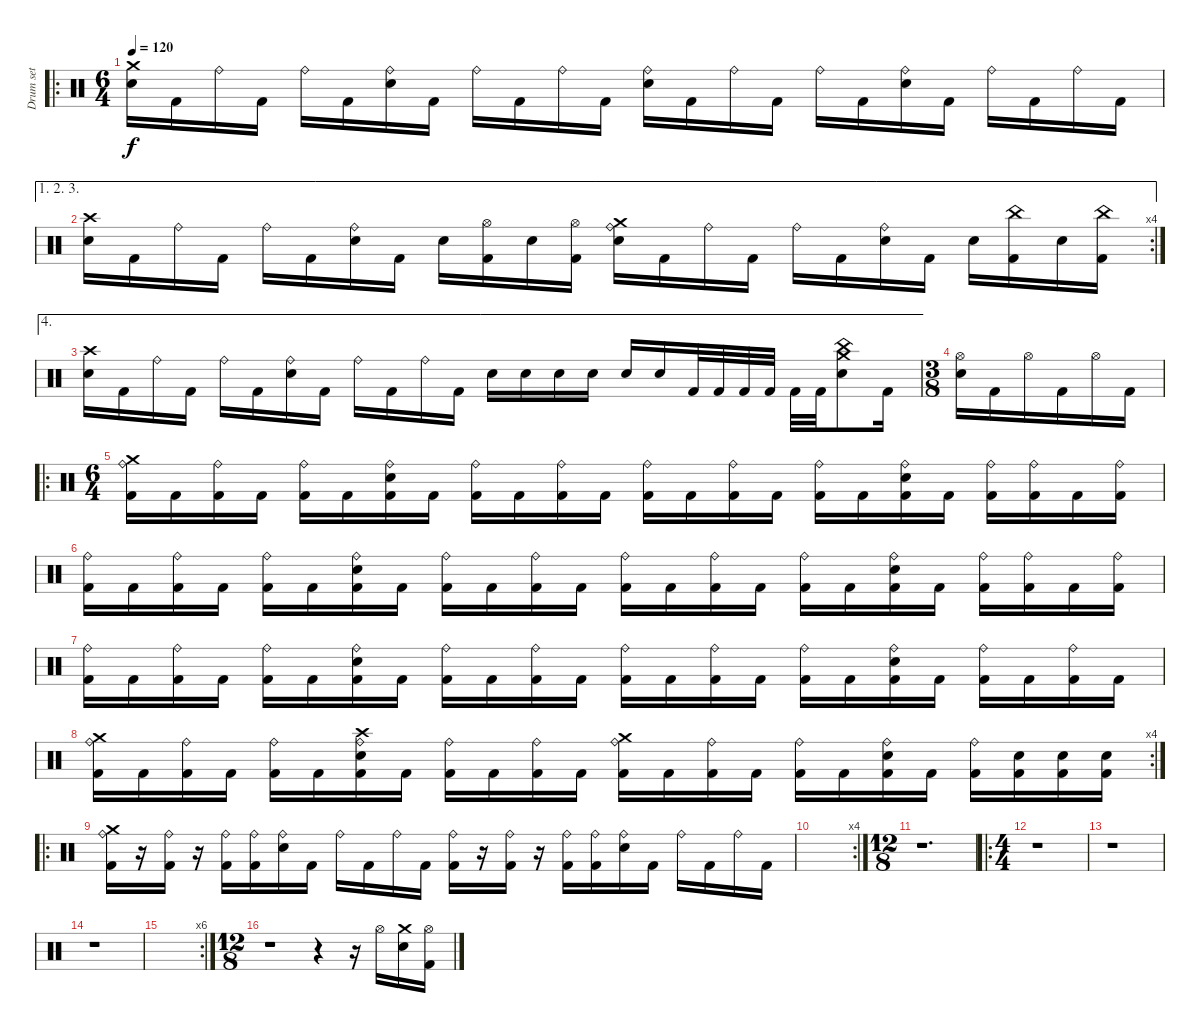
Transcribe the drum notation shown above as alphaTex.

\track ("Drum set" "Drum set") {instrument percussion}
\staff {score}
\articulation defaults
\ro
\ts (6 4)
\tempo 120
\clef neutral
\ks c
("Crash medium (hit)" "Snare (hit) 2").16{dy f} "Kick (hit) 2".16 "Ride (bell)".16 "Kick (hit) 2".16 "Ride (bell)".16 "Kick (hit) 2".16 ("Ride (bell)" "Snare (hit) 2").16 "Kick (hit) 2".16 "Ride (bell)".16 "Kick (hit) 2".16 "Ride (bell)".16 "Kick (hit) 2".16 ("Ride (bell)" "Snare (hit) 2").16 "Kick (hit) 2".16 "Ride (bell)".16 "Kick (hit) 2".16 "Ride (bell)".16 "Kick (hit) 2".16 ("Ride (bell)" "Snare (hit) 2").16 "Kick (hit) 2".16 "Ride (bell)".16 "Kick (hit) 2".16 "Ride (bell)".16 "Kick (hit) 2".16 |
\ae (1 2 3)
\rc 4
("Crash high (hit)" "Snare (hit) 2").16 "Kick (hit) 2".16 "Ride (bell)".16 "Kick (hit) 2".16 "Ride (bell)".16 "Kick (hit) 2".16 ("Ride (bell)" "Snare (hit) 2").16 "Kick (hit) 2".16 "Snare (hit) 2".16 ("Hi-Hat (open)" "Kick (hit) 2").16 "Snare (hit) 2".16 ("Hi-Hat (open)" "Kick (hit) 2").16 ("Crash medium (hit)" "Ride (bell)" "Snare (hit) 2").16 "Kick (hit) 2".16 "Ride (bell)".16 "Kick (hit) 2".16 "Ride (bell)".16 "Kick (hit) 2".16 ("Ride (bell)" "Snare (hit) 2").16 "Kick (hit) 2".16 "Snare (hit) 2".16 ("China (hit)" "Kick (hit) 2").16 "Snare (hit) 2".16 ("China (hit)" "Kick (hit) 2").16 |
\ae 4
("Crash high (hit)" "Snare (hit) 2").16 "Kick (hit) 2".16 "Ride (bell)".16 "Kick (hit) 2".16 "Ride (bell)".16 "Kick (hit) 2".16 ("Ride (bell)" "Snare (hit) 2").16 "Kick (hit) 2".16 "Ride (bell)".16 "Kick (hit) 2".16 "Ride (bell)".16 "Kick (hit) 2".16 "Snare (hit) 2".16 "Snare (hit) 2".16 "Snare (hit) 2".16 "Snare (hit) 2".16 "Snare (hit) 2".16 "Snare (hit) 2".16 "Kick (hit) 2".32 "Kick (hit) 2".32 "Kick (hit) 2".32 "Kick (hit) 2".32 "Kick (hit) 2".32 "Kick (hit) 2".32 ("China (hit)" "Crash medium (hit)" "Snare (hit) 2").8 "Kick (hit) 2".16 |
\ts (3 8)
("Hi-Hat (open)" "Snare (hit) 2").16 "Kick (hit) 2".16 "Hi-Hat (open)".16 "Kick (hit) 2".16 "Hi-Hat (open)".16 "Kick (hit) 2".16 |
\ro
\ts (6 4)
("Crash medium (hit)" "Ride (bell)" "Kick (hit) 2").16 "Kick (hit) 2".16 ("Ride (bell)" "Kick (hit) 2").16 "Kick (hit) 2".16 ("Ride (bell)" "Kick (hit) 2").16 "Kick (hit) 2".16 ("Ride (bell)" "Snare (hit) 2" "Kick (hit) 2").16 "Kick (hit) 2".16 ("Ride (bell)" "Kick (hit) 2").16 "Kick (hit) 2".16 ("Ride (bell)" "Kick (hit) 2").16 "Kick (hit) 2".16 ("Ride (bell)" "Kick (hit) 2").16 "Kick (hit) 2".16 ("Ride (bell)" "Kick (hit) 2").16 "Kick (hit) 2".16 ("Ride (bell)" "Kick (hit) 2").16 "Kick (hit) 2".16 ("Ride (bell)" "Snare (hit) 2" "Kick (hit) 2").16 "Kick (hit) 2".16 ("Ride (bell)" "Kick (hit) 2").16 ("Ride (bell)" "Kick (hit) 2").16 "Kick (hit) 2".16 ("Ride (bell)" "Kick (hit) 2").16 |
("Ride (bell)" "Kick (hit) 2").16 "Kick (hit) 2".16 ("Ride (bell)" "Kick (hit) 2").16 "Kick (hit) 2".16 ("Ride (bell)" "Kick (hit) 2").16 "Kick (hit) 2".16 ("Ride (bell)" "Snare (hit) 2" "Kick (hit) 2").16 "Kick (hit) 2".16 ("Ride (bell)" "Kick (hit) 2").16 "Kick (hit) 2".16 ("Ride (bell)" "Kick (hit) 2").16 "Kick (hit) 2".16 ("Ride (bell)" "Kick (hit) 2").16 "Kick (hit) 2".16 ("Ride (bell)" "Kick (hit) 2").16 "Kick (hit) 2".16 ("Ride (bell)" "Kick (hit) 2").16 "Kick (hit) 2".16 ("Ride (bell)" "Snare (hit) 2" "Kick (hit) 2").16 "Kick (hit) 2".16 ("Ride (bell)" "Kick (hit) 2").16 ("Ride (bell)" "Kick (hit) 2").16 "Kick (hit) 2".16 ("Ride (bell)" "Kick (hit) 2").16 |
("Ride (bell)" "Kick (hit) 2").16 "Kick (hit) 2".16 ("Ride (bell)" "Kick (hit) 2").16 "Kick (hit) 2".16 ("Ride (bell)" "Kick (hit) 2").16 "Kick (hit) 2".16 ("Ride (bell)" "Snare (hit) 2" "Kick (hit) 2").16 "Kick (hit) 2".16 ("Ride (bell)" "Kick (hit) 2").16 "Kick (hit) 2".16 ("Ride (bell)" "Kick (hit) 2").16 "Kick (hit) 2".16 ("Ride (bell)" "Kick (hit) 2").16 "Kick (hit) 2".16 ("Ride (bell)" "Kick (hit) 2").16 "Kick (hit) 2".16 ("Ride (bell)" "Kick (hit) 2").16 "Kick (hit) 2".16 ("Ride (bell)" "Snare (hit) 2" "Kick (hit) 2").16 "Kick (hit) 2".16 ("Ride (bell)" "Kick (hit) 2").16 "Kick (hit) 2".16 ("Ride (bell)" "Kick (hit) 2").16 "Kick (hit) 2".16 |
\rc 4
("Crash medium (hit)" "Ride (bell)" "Kick (hit) 2").16 "Kick (hit) 2".16 ("Ride (bell)" "Kick (hit) 2").16 "Kick (hit) 2".16 ("Ride (bell)" "Kick (hit) 2").16 "Kick (hit) 2".16 ("Crash high (hit)" "Ride (bell)" "Snare (hit) 2" "Kick (hit) 2").16 "Kick (hit) 2".16 ("Ride (bell)" "Kick (hit) 2").16 "Kick (hit) 2".16 ("Ride (bell)" "Kick (hit) 2").16 "Kick (hit) 2".16 ("Crash medium (hit)" "Ride (bell)" "Kick (hit) 2").16 "Kick (hit) 2".16 ("Ride (bell)" "Kick (hit) 2").16 "Kick (hit) 2".16 ("Ride (bell)" "Kick (hit) 2").16 "Kick (hit) 2".16 ("Ride (bell)" "Snare (hit) 2" "Kick (hit) 2").16 "Kick (hit) 2".16 ("Ride (bell)" "Kick (hit) 2").16 ("Snare (hit) 2" "Kick (hit) 2").16 ("Snare (hit) 2" "Kick (hit) 2").16 ("Snare (hit) 2" "Kick (hit) 2").16 |
\ro
("Crash medium (hit)" "Ride (bell)" "Kick (hit) 2").16 r.16 ("Ride (bell)" "Kick (hit) 2").16 r.16 ("Ride (bell)" "Kick (hit) 2").16 ("Ride (bell)" "Kick (hit) 2").16 ("Ride (bell)" "Snare (hit) 2").16 "Kick (hit) 2".16 "Ride (bell)".16 "Kick (hit) 2".16 "Ride (bell)".16 "Kick (hit) 2".16 ("Ride (bell)" "Kick (hit) 2").16 r.16 ("Ride (bell)" "Kick (hit) 2").16 r.16 ("Ride (bell)" "Kick (hit) 2").16 ("Ride (bell)" "Kick (hit) 2").16 ("Ride (bell)" "Snare (hit) 2").16 "Kick (hit) 2".16 "Ride (bell)".16 "Kick (hit) 2".16 "Ride (bell)".16 "Kick (hit) 2".16 |
\rc 4
|
\ts (12 8)
r.1{d} |
\ro
\ts (4 4)
r.1 |
r.1 |
r.1 |
\rc 6
|
\ts (12 8)
r.1 r.4 r.16 "Hi-Hat (open)".16 ("Crash medium (hit)" "Snare (hit) 2").16 ("Hi-Hat (open)" "Kick (hit) 2").16
